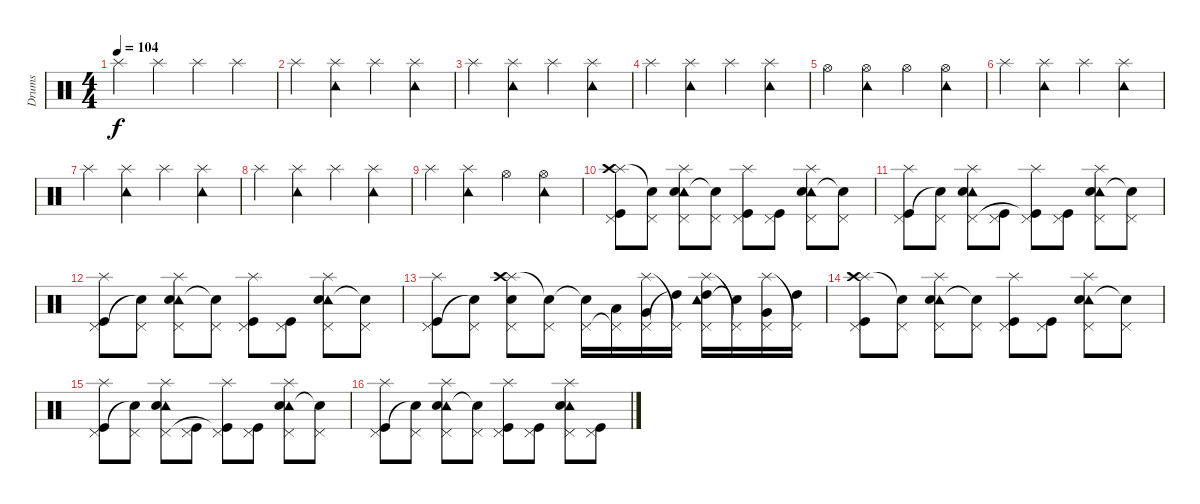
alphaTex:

\track ("Drums" "Drums") {instrument percussion}
\staff {score}
\articulation defaults
\ts (4 4)
\tempo 104
\clef neutral
\ks c "Splash (hit)".4{dy f volume 14} "Splash (hit)".4 "Splash (hit)".4 "Splash (hit)".4
|
"Splash (hit)".4 ("Splash (hit)" "Tambourine (hit)").4 "Splash (hit)".4 ("Splash (hit)" "Tambourine (hit)").4 |
"Splash (hit)".4 ("Splash (hit)" "Tambourine (hit)").4 "Splash (hit)".4 ("Splash (hit)" "Tambourine (hit)").4 |
"Splash (hit)".4 ("Splash (hit)" "Tambourine (hit)").4 "Splash (hit)".4 ("Splash (hit)" "Tambourine (hit)").4 |
"Hi-Hat (open)".4 ("Hi-Hat (open)" "Tambourine (hit)").4 "Hi-Hat (open)".4 ("Hi-Hat (open)" "Tambourine (hit)").4 |
"Splash (hit)".4 ("Splash (hit)" "Tambourine (hit)").4 "Splash (hit)".4 ("Splash (hit)" "Tambourine (hit)").4 |
"Splash (hit)".4 ("Splash (hit)" "Tambourine (hit)").4 "Splash (hit)".4 ("Splash (hit)" "Tambourine (hit)").4 |
"Splash (hit)".4 ("Splash (hit)" "Tambourine (hit)").4 "Splash (hit)".4 ("Splash (hit)" "Tambourine (hit)").4 |
"Splash (hit)".4 ("Splash (hit)" "Tambourine (hit)").4 "Hi-Hat (open)".4 ("Hi-Hat (open)" "Tambourine (hit)").4 |
("Splash (hit)" "Crash high (hit)" "Pedal Hi-Hat (hit)" "Kick (hit)").8 ("Pedal Hi-Hat (hit)" "Snare (hit)"{t}).8 ("Splash (hit)" "Tambourine (hit)" "Pedal Hi-Hat (hit)" "Snare (hit) 2").8 ("Pedal Hi-Hat (hit)" "Snare (hit)"{t}).8 ("Splash (hit)" "Pedal Hi-Hat (hit)" "Kick (hit)").8 ("Pedal Hi-Hat (hit)" "Kick (hit)").8 ("Splash (hit)" "Tambourine (hit)" "Pedal Hi-Hat (hit)" "Snare (hit) 2").8 ("Pedal Hi-Hat (hit)" "Snare (hit)"{t}).8 |
("Splash (hit)" "Pedal Hi-Hat (hit)" "Kick (hit)").8 ("Pedal Hi-Hat (hit)" "Snare (hit)"{t}).8 ("Splash (hit)" "Tambourine (hit)" "Pedal Hi-Hat (hit)" "Snare (hit) 2").8 ("Pedal Hi-Hat (hit)" "Kick (hit)").8 ("Splash (hit)" "Pedal Hi-Hat (hit)" "Kick (hit)"{t}).8 ("Pedal Hi-Hat (hit)" "Kick (hit)").8 ("Splash (hit)" "Tambourine (hit)" "Pedal Hi-Hat (hit)" "Snare (hit) 2").8 ("Pedal Hi-Hat (hit)" "Snare (hit) 2"{t}).8 |
("Splash (hit)" "Pedal Hi-Hat (hit)" "Kick (hit)").8 ("Pedal Hi-Hat (hit)" "Snare (hit)"{t}).8 ("Splash (hit)" "Tambourine (hit)" "Pedal Hi-Hat (hit)" "Snare (hit) 2").8 ("Pedal Hi-Hat (hit)" "Snare (hit)"{t}).8 ("Splash (hit)" "Pedal Hi-Hat (hit)" "Kick (hit)").8 ("Pedal Hi-Hat (hit)" "Kick (hit)").8 ("Splash (hit)" "Tambourine (hit)" "Pedal Hi-Hat (hit)" "Snare (hit) 2").8 ("Pedal Hi-Hat (hit)" "Snare (hit)"{t}).8 |
("Splash (hit)" "Pedal Hi-Hat (hit)" "Kick (hit)").8 ("Pedal Hi-Hat (hit)" "Snare (hit)"{t}).8 ("Splash (hit)" "Crash high (hit)" "Pedal Hi-Hat (hit)" "Snare (hit) 2").8 ("Pedal Hi-Hat (hit)" "Snare (hit)"{t}).8 ("Pedal Hi-Hat (hit)" "Snare (hit)"{t}).16 ("Pedal Hi-Hat (hit)"{t} "Low Tom (hit)").16 ("Splash (hit)" "Pedal Hi-Hat (hit)" "Very Low Tom (hit)").16 ("Pedal Hi-Hat (hit)"{t} "High Tom (hit)"{t}).16 ("Splash (hit)" "Tambourine (hit)" "Pedal Hi-Hat (hit)" "High Tom (hit)").16 ("Pedal Hi-Hat (hit)"{t} "Snare (hit)"{t}).16 ("Splash (hit)" "Pedal Hi-Hat (hit)" "Very Low Tom (hit)").16 ("Pedal Hi-Hat (hit)"{t} "High Tom (hit)").16 |
("Splash (hit)" "Crash high (hit)" "Pedal Hi-Hat (hit)" "Kick (hit)").8 ("Pedal Hi-Hat (hit)" "Snare (hit)"{t}).8 ("Splash (hit)" "Tambourine (hit)" "Pedal Hi-Hat (hit)" "Snare (hit) 2").8 ("Pedal Hi-Hat (hit)" "Snare (hit)"{t}).8 ("Splash (hit)" "Pedal Hi-Hat (hit)" "Kick (hit)").8 ("Pedal Hi-Hat (hit)" "Kick (hit)").8 ("Splash (hit)" "Tambourine (hit)" "Pedal Hi-Hat (hit)" "Snare (hit) 2").8 ("Pedal Hi-Hat (hit)" "Snare (hit)"{t}).8 |
("Splash (hit)" "Pedal Hi-Hat (hit)" "Kick (hit)").8 ("Pedal Hi-Hat (hit)" "Snare (hit)"{t}).8 ("Splash (hit)" "Tambourine (hit)" "Pedal Hi-Hat (hit)" "Snare (hit) 2").8 ("Pedal Hi-Hat (hit)" "Kick (hit)").8 ("Splash (hit)" "Pedal Hi-Hat (hit)" "Kick (hit)"{t}).8 ("Pedal Hi-Hat (hit)" "Kick (hit)").8 ("Splash (hit)" "Tambourine (hit)" "Pedal Hi-Hat (hit)" "Snare (hit) 2").8 ("Pedal Hi-Hat (hit)" "Snare (hit) 2"{t}).8 |
("Splash (hit)" "Pedal Hi-Hat (hit)" "Kick (hit)").8 ("Pedal Hi-Hat (hit)" "Snare (hit)"{t}).8 ("Splash (hit)" "Tambourine (hit)" "Pedal Hi-Hat (hit)" "Snare (hit) 2").8 ("Pedal Hi-Hat (hit)" "Snare (hit)"{t}).8 ("Splash (hit)" "Pedal Hi-Hat (hit)" "Kick (hit)").8 ("Pedal Hi-Hat (hit)" "Kick (hit)").8 ("Splash (hit)" "Tambourine (hit)" "Pedal Hi-Hat (hit)" "Snare (hit) 2").8 ("Pedal Hi-Hat (hit)" "Kick (hit)").8
